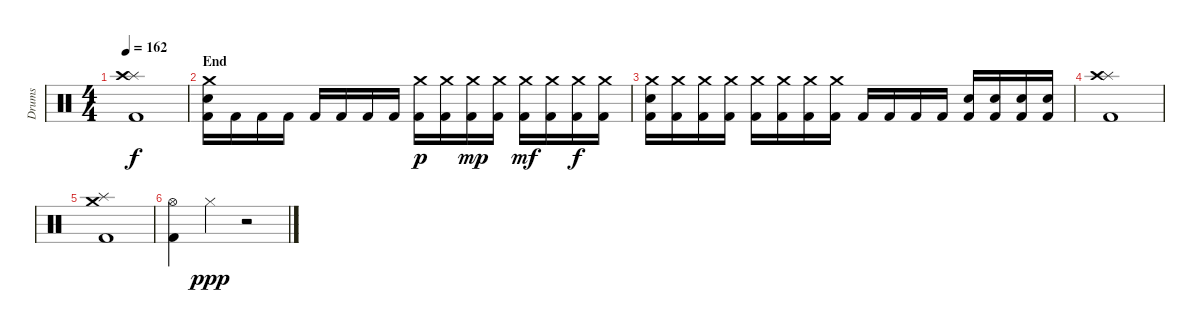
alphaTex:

\track ("Drums" "Drums") {instrument percussion}
\staff {score}
\articulation defaults
\ts (4 4)
\tempo 162
\clef neutral
\ks c
("Kick (hit) 2" "Splash (hit)" "Crash high (hit)").1{dy f} |
\section ("" "End")
("Kick (hit) 2" "Electric Snare (hit)" "Crash medium (hit)").16 "Kick (hit) 2".16 "Kick (hit) 2".16 "Kick (hit) 2".16 "Kick (hit) 2".16 "Kick (hit) 2".16 "Kick (hit) 2".16 "Kick (hit) 2".16 ("Kick (hit) 2" "Crash medium (hit)").16{dy p} ("Kick (hit) 2" "Crash medium (hit)").16 ("Kick (hit) 2" "Crash medium (hit)").16{dy mp} ("Kick (hit) 2" "Crash medium (hit)").16 ("Kick (hit) 2" "Crash medium (hit)").16{dy mf} ("Kick (hit) 2" "Crash medium (hit)").16 ("Kick (hit) 2" "Crash medium (hit)").16{dy f} ("Kick (hit) 2" "Crash medium (hit)").16 |
("Kick (hit) 2" "Electric Snare (hit)" "Crash medium (hit)").16 ("Kick (hit) 2" "Crash medium (hit)").16 ("Kick (hit) 2" "Crash medium (hit)").16 ("Kick (hit) 2" "Crash medium (hit)").16 ("Kick (hit) 2" "Crash medium (hit)").16 ("Kick (hit) 2" "Crash medium (hit)").16 ("Kick (hit) 2" "Crash medium (hit)").16 ("Kick (hit) 2" "Crash medium (hit)").16 "Kick (hit) 2".16 "Kick (hit) 2".16 "Kick (hit) 2".16 "Kick (hit) 2".16 ("Kick (hit) 2" "Electric Snare (hit)").16 ("Kick (hit) 2" "Electric Snare (hit)").16 ("Kick (hit) 2" "Electric Snare (hit)").16 ("Kick (hit) 2" "Electric Snare (hit)").16 |
("Kick (hit) 2" "Splash (hit)" "Crash high (hit)").1 |
("Kick (hit) 2" "Splash (hit)" "Crash medium (hit)").1 |
("Kick (hit) 2" "Hi-Hat (open)").4 "Hi-Hat (closed)".4{dy ppp} r.2
